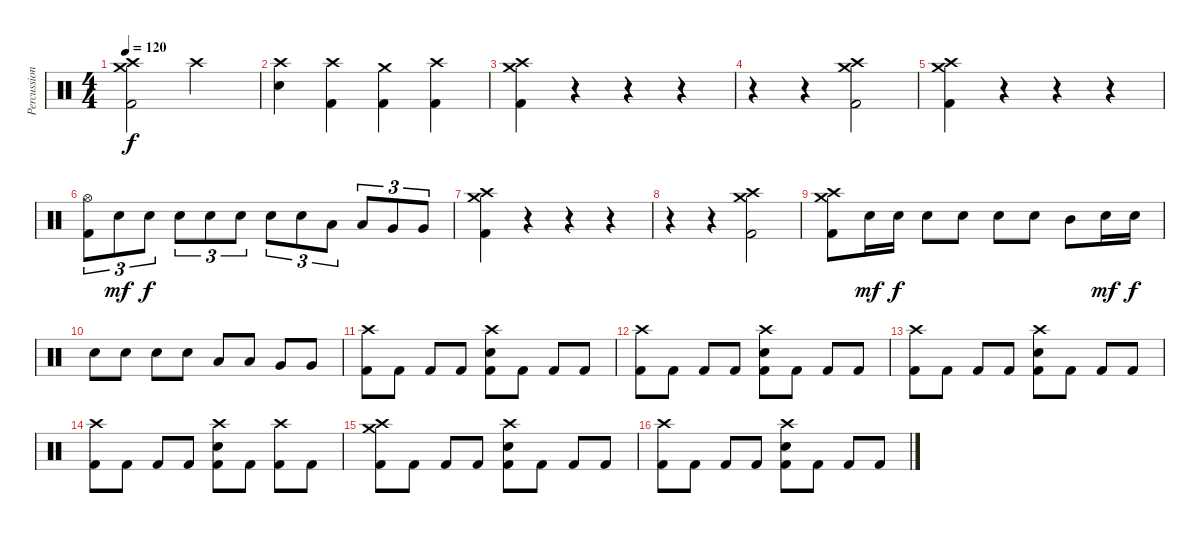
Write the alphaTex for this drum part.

\track ("Percussion" "Percussion") {instrument percussion}
\staff {score}
\articulation defaults
\ts (4 4)
\tempo 120
\clef neutral
\ks c
("Crash high (hit)" "Crash medium (hit)" "Kick (hit) 2").2{dy f} "Crash high (hit)".2 |
("Crash high (hit)" "Electric Snare (hit)").4 ("Crash high (hit)" "Kick (hit) 2").4 ("Crash medium (hit)" "Kick (hit) 2").4 ("Crash high (hit)" "Kick (hit) 2").4 |
("Crash high (hit)" "Crash medium (hit)" "Kick (hit) 2").4 r.4 r.4 r.4 |
r.4 r.4 ("Crash high (hit)" "Crash medium (hit)" "Kick (hit) 2").2 |
("Crash high (hit)" "Crash medium (hit)" "Kick (hit) 2").4 r.4 r.4 r.4 |
("Hi-Hat (open)" "Kick (hit) 2").8{tu (3 2)} "Electric Snare (hit)".8{tu (3 2) dy mf} "Electric Snare (hit)".8{tu (3 2) dy f} "Electric Snare (hit)".8{tu (3 2)} "Electric Snare (hit)".8{tu (3 2)} "Electric Snare (hit)".8{tu (3 2)} "Electric Snare (hit)".8{tu (3 2)} "Electric Snare (hit)".8{tu (3 2)} "Low Tom (hit)".8{tu (3 2)} "Low Tom (hit)".8{tu (3 2)} "Very Low Tom (hit)".8{tu (3 2)} "Very Low Tom (hit)".8{tu (3 2)} |
("Crash high (hit)" "Crash medium (hit)" "Kick (hit) 2").4 r.4 r.4 r.4 |
r.4 r.4 ("Crash high (hit)" "Crash medium (hit)" "Kick (hit) 2").2 |
("Crash high (hit)" "Crash medium (hit)" "Kick (hit) 2").8 "Electric Snare (hit)".16{dy mf} "Electric Snare (hit)".16{dy f} "Electric Snare (hit)".8 "Electric Snare (hit)".8 "Electric Snare (hit)".8 "Electric Snare (hit)".8 "Mid Tom (hit)".8 "Electric Snare (hit)".16{dy mf} "Electric Snare (hit)".16{dy f} |
"Electric Snare (hit)".8 "Electric Snare (hit)".8 "Electric Snare (hit)".8 "Electric Snare (hit)".8 "Low Tom (hit)".8 "Low Tom (hit)".8 "Very Low Tom (hit)".8 "Very Low Tom (hit)".8 |
("Crash high (hit)" "Kick (hit) 2").8 "Kick (hit) 2".8 "Kick (hit) 2".8 "Kick (hit) 2".8 ("Crash high (hit)" "Electric Snare (hit)" "Kick (hit) 2").8 "Kick (hit) 2".8 "Kick (hit) 2".8 "Kick (hit) 2".8 |
("Crash high (hit)" "Kick (hit) 2").8 "Kick (hit) 2".8 "Kick (hit) 2".8 "Kick (hit) 2".8 ("Crash high (hit)" "Electric Snare (hit)" "Kick (hit) 2").8 "Kick (hit) 2".8 "Kick (hit) 2".8 "Kick (hit) 2".8 |
("Crash high (hit)" "Kick (hit) 2").8 "Kick (hit) 2".8 "Kick (hit) 2".8 "Kick (hit) 2".8 ("Crash high (hit)" "Electric Snare (hit)" "Kick (hit) 2").8 "Kick (hit) 2".8 "Kick (hit) 2".8 "Kick (hit) 2".8 |
("Crash high (hit)" "Kick (hit) 2").8 "Kick (hit) 2".8 "Kick (hit) 2".8 "Kick (hit) 2".8 ("Crash high (hit)" "Electric Snare (hit)" "Kick (hit) 2").8 "Kick (hit) 2".8 ("Crash high (hit)" "Kick (hit) 2").8 "Kick (hit) 2".8 |
("Crash high (hit)" "Crash medium (hit)" "Kick (hit) 2").8 "Kick (hit) 2".8 "Kick (hit) 2".8 "Kick (hit) 2".8 ("Crash high (hit)" "Electric Snare (hit)" "Kick (hit) 2").8 "Kick (hit) 2".8 "Kick (hit) 2".8 "Kick (hit) 2".8 |
("Crash high (hit)" "Kick (hit) 2").8 "Kick (hit) 2".8 "Kick (hit) 2".8 "Kick (hit) 2".8 ("Crash high (hit)" "Electric Snare (hit)" "Kick (hit) 2").8 "Kick (hit) 2".8 "Kick (hit) 2".8 "Kick (hit) 2".8
